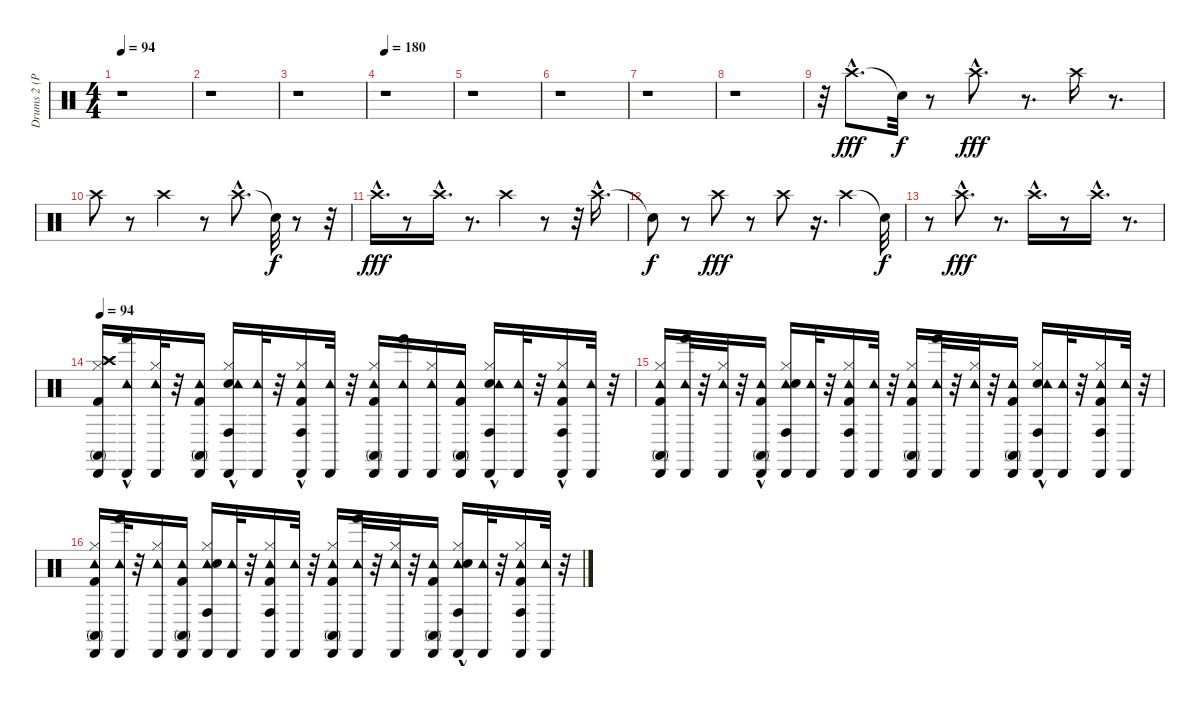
\track ("Drums 2 (Power)" "Drums 2 (P") {instrument percussion}
\staff {score}
\articulation defaults
\ts (4 4)
\tempo 94
\clef neutral
\ks c
r.1{dy fff} |
r.1 |
r.1 |
\tempo 180
r.1 |
r.1 |
r.1 |
r.1 |
r.1 |
r.32 "Crash high (hit)"{hac}.8{d} "Snare (hit)"{t}.32{dy f} r.8 "Crash high (hit)"{hac}.8{d dy fff} r.8{d} "Crash high (hit)".16 r.8{d} |
"Crash high (hit)".8 r.8 "Crash high (hit)".4 r.8 "Crash high (hit)"{hac}.8{d} "Snare (hit)"{t}.32{dy f} r.8 r.32 |
"Crash high (hit)"{hac}.16{d dy fff} r.8 "Crash high (hit)"{hac}.16{d} r.8{d} "Crash high (hit)".4 r.8 r.32 "Crash high (hit)"{hac}.16{d} |
"Snare (hit)"{t}.8{dy f} r.8 "Crash high (hit)".8{dy fff} r.8 "Crash high (hit)".8 r.16{d} "Crash high (hit)".4 "Snare (hit)"{t}.32{dy f} |
r.8 "Crash high (hit)"{hac}.8{d dy fff} r.8{d} "Crash high (hit)"{hac}.16{d} r.8 "Crash high (hit)"{hac}.16{d} r.8{d} |
\tempo 94
("Crash high (hit)" "Hi-Hat (closed)" "Kick (hit) 2" "Cabasa (hit)" "Crash high (hit)" "Conga high (mute)").16 ("Cabasa (hit)" "Hand (hit)"{hac} "Tambourine (hit)").16 ("Tambourine (hit)" "Cabasa (hit)" "Hi-Hat (closed)").32 r.32 ("Tambourine (hit)" "Cabasa (hit)" "Kick (hit) 2" "Conga high (mute)").16 ("Cabasa (hit)" "Hi-Hat (closed)" "Snare (hit) 2"{hac} "Conga high (hit)" "Tambourine (hit)").16 ("Tambourine (hit)" "Cabasa (hit)").32 r.32 ("Tambourine (hit)" "Cabasa (hit)" "Hi-Hat (closed)" "Kick (hit) 2"{hac} "Conga high (hit)").16 ("Tambourine (hit)" "Cabasa (hit)").32 r.32 ("Tambourine (hit)" "Conga high (mute)" "Cabasa (hit)" "Hi-Hat (closed)" "Kick (hit) 2").16 ("Tambourine (hit)" "Hand (hit)" "Cabasa (hit)").16 ("Hi-Hat (closed)" "Cabasa (hit)" "Tambourine (hit)").16 ("Conga high (mute)" "Cabasa (hit)" "Kick (hit) 2" "Tambourine (hit)").16 ("Cabasa (hit)" "Hi-Hat (closed)" "Snare (hit) 2"{hac} "Conga high (hit)" "Tambourine (hit)").16 ("Cabasa (hit)" "Tambourine (hit)").32 r.32 ("Cabasa (hit)" "Kick (hit) 2"{hac} "Hi-Hat (closed)" "Conga high (hit)" "Tambourine (hit)").16 ("Cabasa (hit)" "Tambourine (hit)").32 r.32 |
("Tambourine (hit)" "Conga high (mute)" "Kick (hit) 2" "Hi-Hat (closed)" "Cabasa (hit)").16 ("Tambourine (hit)" "Cabasa (hit)" "Hand (hit)").32 r.32 ("Tambourine (hit)" "Cabasa (hit)" "Hi-Hat (closed)").32 r.32 ("Tambourine (hit)" "Conga high (mute)"{hac} "Cabasa (hit)" "Kick (hit) 2").16 ("Tambourine (hit)" "Cabasa (hit)" "Hi-Hat (closed)" "Snare (hit) 2" "Conga high (hit)").16 ("Tambourine (hit)" "Cabasa (hit)").32 r.32 ("Hi-Hat (closed)" "Kick (hit) 2" "Cabasa (hit)" "Conga high (hit)" "Tambourine (hit)").16 ("Cabasa (hit)" "Tambourine (hit)").32 r.32 ("Cabasa (hit)" "Hi-Hat (closed)" "Kick (hit) 2" "Conga high (mute)" "Tambourine (hit)").16 ("Cabasa (hit)" "Hand (hit)" "Tambourine (hit)").32 r.32 ("Tambourine (hit)" "Cabasa (hit)" "Hi-Hat (closed)").32 r.32 ("Cabasa (hit)" "Kick (hit) 2" "Conga high (mute)" "Tambourine (hit)").16 ("Hi-Hat (closed)" "Snare (hit) 2"{hac} "Cabasa (hit)" "Conga high (hit)" "Tambourine (hit)").16 ("Tambourine (hit)" "Cabasa (hit)").32 r.32 ("Kick (hit) 2" "Hi-Hat (closed)" "Cabasa (hit)" "Conga high (hit)" "Tambourine (hit)").16 ("Cabasa (hit)" "Tambourine (hit)").32 r.32 |
("Kick (hit) 2" "Hi-Hat (closed)" "Conga high (mute)" "Cabasa (hit)" "Tambourine (hit)").16 ("Cabasa (hit)" "Hand (hit)" "Tambourine (hit)").32 r.32 ("Hi-Hat (closed)" "Cabasa (hit)" "Tambourine (hit)").16 ("Conga high (mute)" "Kick (hit) 2" "Cabasa (hit)" "Tambourine (hit)").16 ("Tambourine (hit)" "Hi-Hat (closed)" "Snare (hit) 2" "Cabasa (hit)" "Conga high (hit)").16 ("Cabasa (hit)" "Tambourine (hit)").32 r.32 ("Hi-Hat (closed)" "Kick (hit) 2" "Cabasa (hit)" "Conga high (hit)" "Tambourine (hit)").16 ("Cabasa (hit)" "Tambourine (hit)").32 r.32 ("Hi-Hat (closed)" "Kick (hit) 2" "Cabasa (hit)" "Conga high (mute)" "Tambourine (hit)").16 ("Tambourine (hit)" "Cabasa (hit)" "Hand (hit)").32 r.32 ("Tambourine (hit)" "Cabasa (hit)" "Hi-Hat (closed)").32 r.32 ("Conga high (mute)" "Cabasa (hit)" "Kick (hit) 2" "Tambourine (hit)").16 ("Tambourine (hit)" "Cabasa (hit)" "Hi-Hat (closed)" "Snare (hit) 2"{hac} "Conga high (hit)").16 ("Tambourine (hit)" "Cabasa (hit)").32 r.32 ("Tambourine (hit)" "Cabasa (hit)" "Hi-Hat (closed)" "Kick (hit) 2" "Conga high (hit)").16 ("Tambourine (hit)" "Cabasa (hit)").32 r.32
